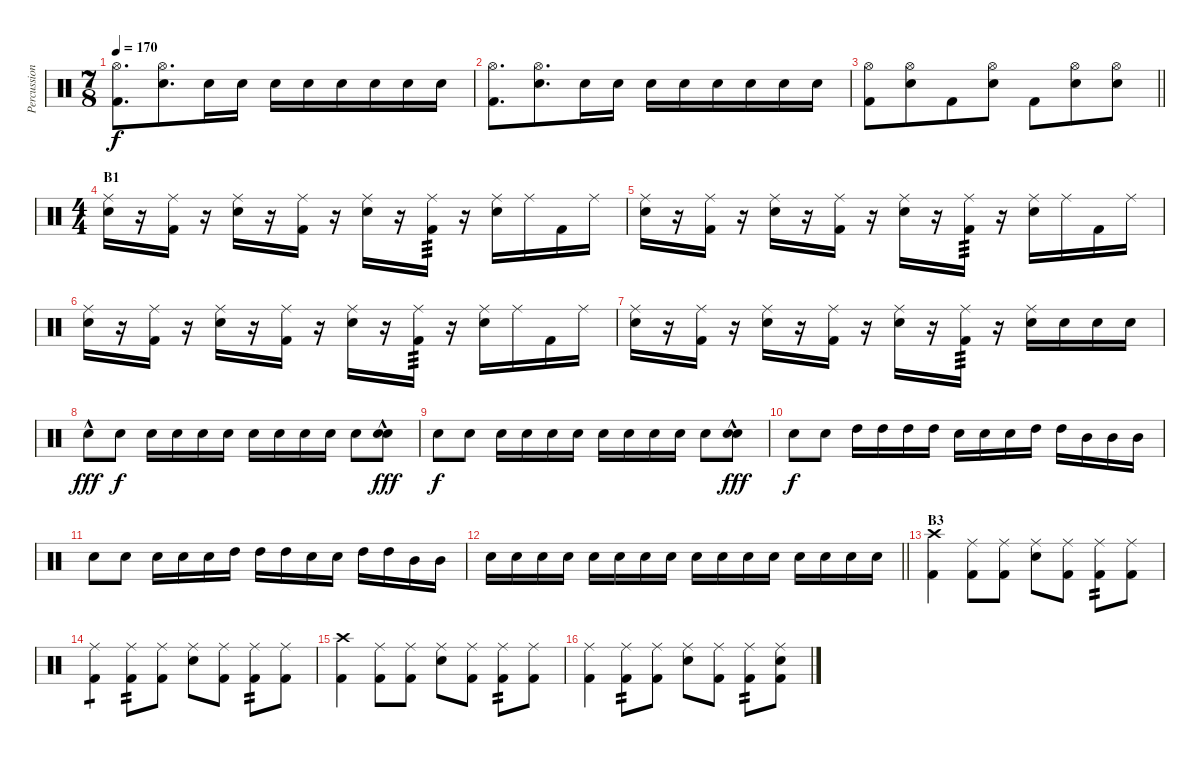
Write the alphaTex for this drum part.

\track ("Percussion" "Percussion") {instrument percussion}
\staff {score}
\articulation defaults
\ts (7 8)
\tempo 170
\clef neutral
\ks c
("Hi-Hat (open)" "Kick (hit) 2").8{d dy f} ("Hi-Hat (open)" "Electric Snare (hit)").8{d} "Electric Snare (hit)".16 "Electric Snare (hit)".16 "Electric Snare (hit)".16 "Electric Snare (hit)".16 "Electric Snare (hit)".16 "Electric Snare (hit)".16 "Electric Snare (hit)".16 "Electric Snare (hit)".16 |
("Hi-Hat (open)" "Kick (hit) 2").8{d} ("Hi-Hat (open)" "Electric Snare (hit)").8{d} "Electric Snare (hit)".16 "Electric Snare (hit)".16 "Electric Snare (hit)".16 "Electric Snare (hit)".16 "Electric Snare (hit)".16 "Electric Snare (hit)".16 "Electric Snare (hit)".16 "Electric Snare (hit)".16 |
\barLineRight lightlight
("Hi-Hat (open)" "Kick (hit) 2").8 ("Hi-Hat (open)" "Electric Snare (hit)").8 "Kick (hit) 2".8 ("Hi-Hat (open)" "Electric Snare (hit)").8 "Kick (hit) 2".8 ("Hi-Hat (open)" "Electric Snare (hit)").8 ("Hi-Hat (open)" "Electric Snare (hit)").8 |
\ts (4 4)
\section ("" "B1")
("Ride (middle)" "Electric Snare (hit)").16 r.16 ("Ride (middle)" "Kick (hit) 2").16 r.16 ("Ride (middle)" "Electric Snare (hit)").16 r.16 ("Ride (middle)" "Kick (hit) 2").16 r.16 ("Ride (middle)" "Electric Snare (hit)").16 r.16 ("Ride (middle)" "Kick (hit) 2").16{tp 3} r.16 ("Ride (middle)" "Electric Snare (hit)").16 "Ride (middle)".16 "Kick (hit) 2".16 "Ride (middle)".16 |
("Ride (middle)" "Electric Snare (hit)").16 r.16 ("Ride (middle)" "Kick (hit) 2").16 r.16 ("Ride (middle)" "Electric Snare (hit)").16 r.16 ("Ride (middle)" "Kick (hit) 2").16 r.16 ("Ride (middle)" "Electric Snare (hit)").16 r.16 ("Ride (middle)" "Kick (hit) 2").16{tp 3} r.16 ("Ride (middle)" "Electric Snare (hit)").16 "Ride (middle)".16 "Kick (hit) 2".16 "Ride (middle)".16 |
("Ride (middle)" "Electric Snare (hit)").16 r.16 ("Ride (middle)" "Kick (hit) 2").16 r.16 ("Ride (middle)" "Electric Snare (hit)").16 r.16 ("Ride (middle)" "Kick (hit) 2").16 r.16 ("Ride (middle)" "Electric Snare (hit)").16 r.16 ("Ride (middle)" "Kick (hit) 2").16{tp 3} r.16 ("Ride (middle)" "Electric Snare (hit)").16 "Ride (middle)".16 "Kick (hit) 2".16 "Ride (middle)".16 |
("Ride (middle)" "Electric Snare (hit)").16 r.16 ("Ride (middle)" "Kick (hit) 2").16 r.16 ("Ride (middle)" "Electric Snare (hit)").16 r.16 ("Ride (middle)" "Kick (hit) 2").16 r.16 ("Ride (middle)" "Electric Snare (hit)").16 r.16 ("Ride (middle)" "Kick (hit) 2").16{tp 3} r.16 ("Ride (middle)" "Electric Snare (hit)").16 "Electric Snare (hit)".16 "Electric Snare (hit)".16 "Electric Snare (hit)".16 |
"Electric Snare (hit)"{hac}.8{dy fff} "Electric Snare (hit)".8{dy f} "Electric Snare (hit)".16 "Electric Snare (hit)".16 "Electric Snare (hit)".16 "Electric Snare (hit)".16 "Electric Snare (hit)".16 "Electric Snare (hit)".16 "Electric Snare (hit)".16 "Electric Snare (hit)".16 "Electric Snare (hit)".8 ("Electric Snare (hit)"{hac} "Electric Snare (hit)"{hac}).8{dy fff} |
"Electric Snare (hit)".8{dy f} "Electric Snare (hit)".8 "Electric Snare (hit)".16 "Electric Snare (hit)".16 "Electric Snare (hit)".16 "Electric Snare (hit)".16 "Electric Snare (hit)".16 "Electric Snare (hit)".16 "Electric Snare (hit)".16 "Electric Snare (hit)".16 "Electric Snare (hit)".8 ("Electric Snare (hit)"{hac} "Electric Snare (hit)"{hac}).8{dy fff} |
"Electric Snare (hit)".8{dy f} "Electric Snare (hit)".8 "High Tom (hit)".16 "High Tom (hit)".16 "High Tom (hit)".16 "High Tom (hit)".16 "Electric Snare (hit)".16 "Electric Snare (hit)".16 "Electric Snare (hit)".16 "High Tom (hit)".16 "High Tom (hit)".16 "Mid Tom (hit)".16 "Mid Tom (hit)".16 "Mid Tom (hit)".16 |
"Electric Snare (hit)".8 "Electric Snare (hit)".8 "Electric Snare (hit)".16 "Electric Snare (hit)".16 "Electric Snare (hit)".16 "High Tom (hit)".16 "High Tom (hit)".16 "High Tom (hit)".16 "Electric Snare (hit)".16 "Electric Snare (hit)".16 "High Tom (hit)".16 "High Tom (hit)".16 "Mid Tom (hit)".16 "Mid Tom (hit)".16 |
\barLineRight lightlight "Electric Snare (hit)".16 "Electric Snare (hit)".16 "Electric Snare (hit)".16 "Electric Snare (hit)".16 "Electric Snare (hit)".16 "Electric Snare (hit)".16 "Electric Snare (hit)".16 "Electric Snare (hit)".16 "Electric Snare (hit)".16 "Electric Snare (hit)".16 "Electric Snare (hit)".16 "Electric Snare (hit)".16 "Electric Snare (hit)".16 "Electric Snare (hit)".16 "Electric Snare (hit)".16 "Electric Snare (hit)".16
|
\section ("" "B3")
("Crash high (hit)" "Kick (hit) 2").4 ("Ride (middle)" "Kick (hit) 2").8 ("Ride (middle)" "Kick (hit) 2").8 ("Ride (middle)" "Electric Snare (hit)").8 ("Ride (middle)" "Kick (hit) 2").8 ("Ride (middle)" "Kick (hit) 2").8{tp 2} ("Ride (middle)" "Kick (hit) 2").8 |
("Ride (middle)" "Kick (hit) 2").4{tp 1} ("Ride (middle)" "Kick (hit) 2").8{tp 2} ("Ride (middle)" "Kick (hit) 2").8 ("Ride (middle)" "Electric Snare (hit)").8 ("Ride (middle)" "Kick (hit) 2").8 ("Ride (middle)" "Kick (hit) 2").8{tp 2} ("Ride (middle)" "Kick (hit) 2").8 |
("Crash high (hit)" "Kick (hit) 2").4 ("Ride (middle)" "Kick (hit) 2").8 ("Ride (middle)" "Kick (hit) 2").8 ("Ride (middle)" "Electric Snare (hit)").8 ("Ride (middle)" "Kick (hit) 2").8 ("Ride (middle)" "Kick (hit) 2").8{tp 2} ("Ride (middle)" "Kick (hit) 2").8 |
("Ride (middle)" "Kick (hit) 2").4 ("Ride (middle)" "Kick (hit) 2").8{tp 2} ("Ride (middle)" "Kick (hit) 2").8 ("Ride (middle)" "Electric Snare (hit)").8 ("Ride (middle)" "Kick (hit) 2").8 ("Ride (middle)" "Kick (hit) 2").8{tp 2} ("Ride (middle)" "Electric Snare (hit)" "Kick (hit) 2").8
